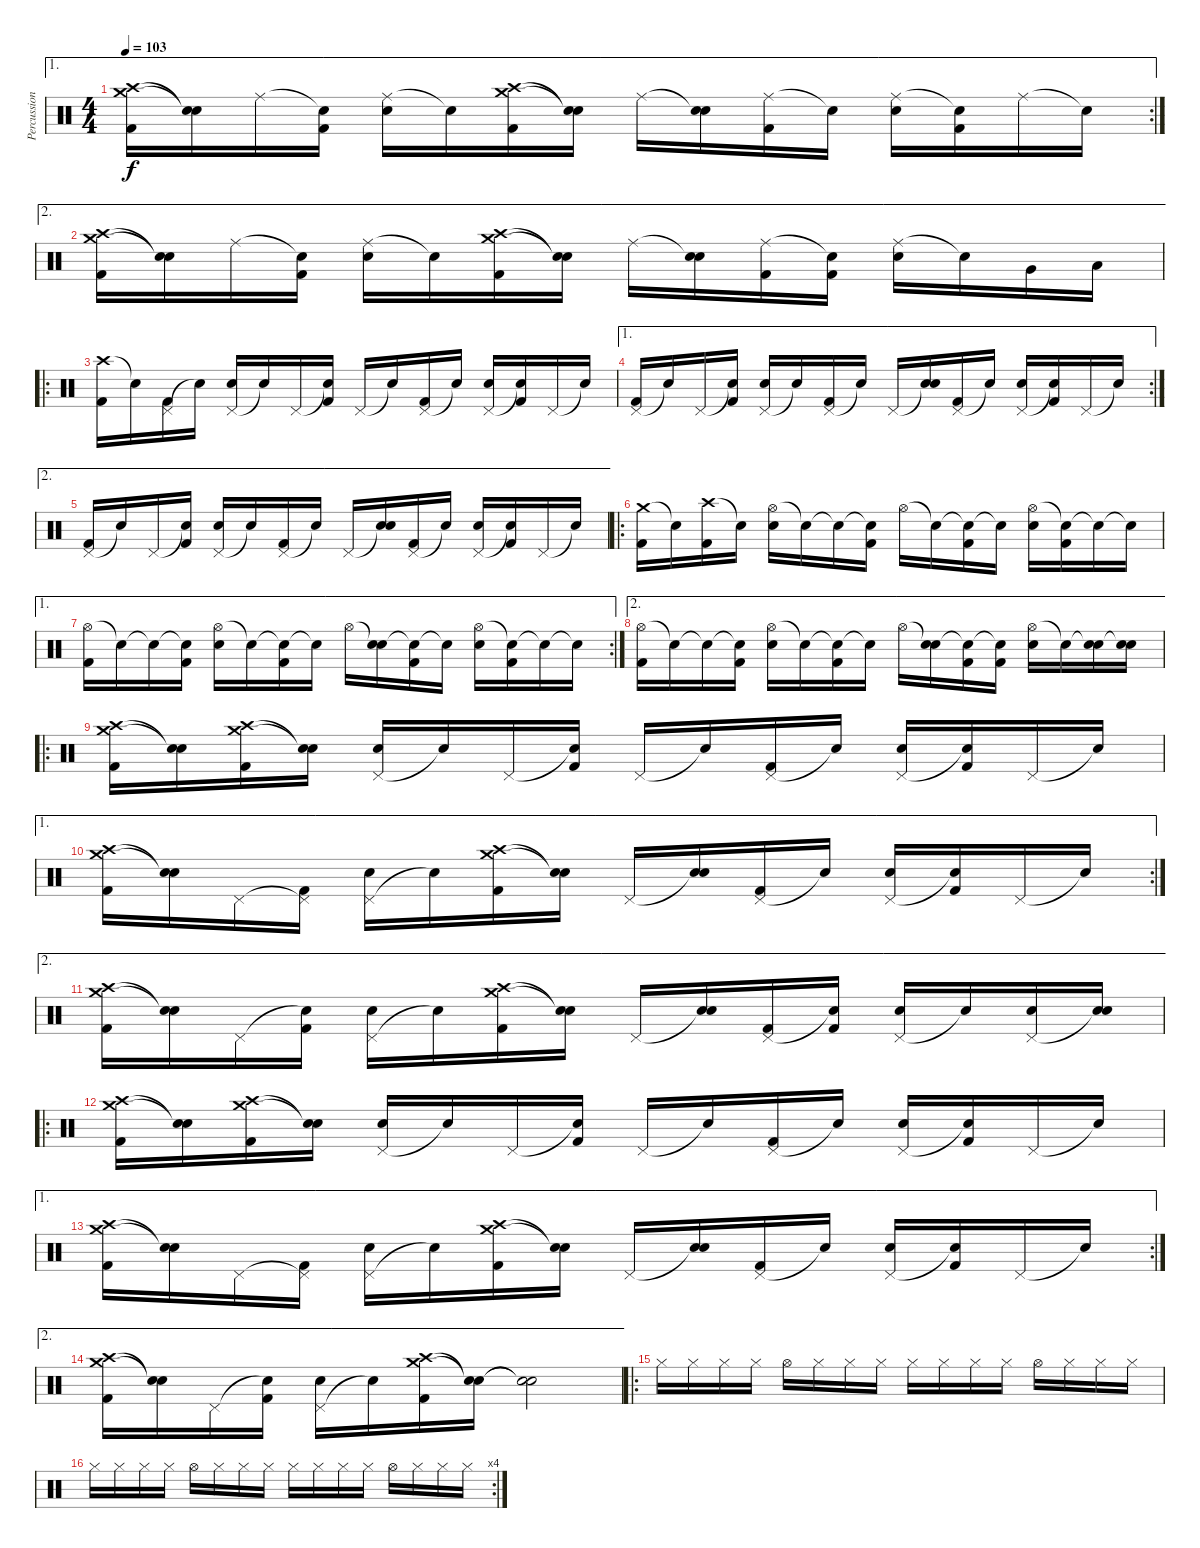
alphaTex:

\track ("Percussion" "Percussion") {instrument percussion}
\staff {score}
\articulation defaults
\ae 1
\rc 2
\ts (4 4)
\tempo 103
\clef neutral
\ks c
("Crash medium (hit)" "Crash high (hit)" "Kick (hit) 2").16{dy f} ("Snare (hit)"{t} "Snare (hit)"{t}).16 "Ride (middle)".16 ("Snare (hit)"{t} "Kick (hit) 2").16 ("Ride (middle)" "Snare (hit) 2").16 "Snare (hit)"{t}.16 ("Crash medium (hit)" "Crash high (hit)" "Kick (hit) 2").16 ("Snare (hit)"{t} "Snare (hit)"{t}).16 "Ride (middle)".16 ("Snare (hit)"{t} "Snare (hit) 2").16 ("Ride (middle)" "Kick (hit) 2").16 "Snare (hit)"{t}.16 ("Ride (middle)" "Snare (hit) 2").16 ("Snare (hit)"{t} "Kick (hit) 2").16 "Ride (middle)".16 "Snare (hit)"{t}.16 |
\ae 2
("Crash medium (hit)" "Crash high (hit)" "Kick (hit) 2").16 ("Snare (hit)"{t} "Snare (hit)"{t}).16 "Ride (middle)".16 ("Snare (hit)"{t} "Kick (hit) 2").16 ("Ride (middle)" "Snare (hit) 2").16 "Snare (hit)"{t}.16 ("Crash medium (hit)" "Crash high (hit)" "Kick (hit) 2").16 ("Snare (hit)"{t} "Snare (hit)"{t}).16 "Ride (middle)".16 ("Snare (hit)"{t} "Snare (hit) 2").16 ("Ride (middle)" "Kick (hit) 2").16 ("Snare (hit)"{t} "Kick (hit) 2").16 ("Ride (middle)" "Snare (hit) 2").16 "Snare (hit)"{t}.16 "Very Low Tom (hit)".16 "Low Floor Tom (hit)".16 |
\ro
("Crash high (hit)" "Kick (hit) 2").16 "Snare (hit)"{t}.16 ("Pedal Hi-Hat (hit)" "Kick (hit) 2").16 "Snare (hit)"{t}.16 ("Pedal Hi-Hat (hit)" "Snare (hit) 2").16 "Snare (hit)"{t}.16 "Pedal Hi-Hat (hit)".16 ("Snare (hit)"{t} "Kick (hit) 2").16 "Pedal Hi-Hat (hit)".16 "Snare (hit)"{t}.16 ("Pedal Hi-Hat (hit)" "Kick (hit) 2").16 "Snare (hit)"{t}.16 ("Pedal Hi-Hat (hit)" "Snare (hit) 2").16 ("Snare (hit)"{t} "Kick (hit) 2").16 "Pedal Hi-Hat (hit)".16 "Snare (hit)"{t}.16 |
\ae 1
\rc 2
("Pedal Hi-Hat (hit)" "Kick (hit) 2").16 "Snare (hit)"{t}.16 "Pedal Hi-Hat (hit)".16 ("Snare (hit)"{t} "Kick (hit) 2").16 ("Pedal Hi-Hat (hit)" "Snare (hit) 2").16 "Snare (hit)"{t}.16 ("Pedal Hi-Hat (hit)" "Kick (hit) 2").16 "Snare (hit)"{t}.16 "Pedal Hi-Hat (hit)".16 ("Snare (hit)"{t} "Snare (hit) 2").16 ("Pedal Hi-Hat (hit)" "Kick (hit) 2").16 "Snare (hit)"{t}.16 ("Pedal Hi-Hat (hit)" "Snare (hit) 2").16 ("Snare (hit)"{t} "Kick (hit) 2").16 "Pedal Hi-Hat (hit)".16 "Snare (hit)"{t}.16 |
\ae 2
("Pedal Hi-Hat (hit)" "Kick (hit) 2").16 "Snare (hit)"{t}.16 "Pedal Hi-Hat (hit)".16 ("Snare (hit)"{t} "Kick (hit) 2").16 ("Pedal Hi-Hat (hit)" "Snare (hit) 2").16 "Snare (hit)"{t}.16 ("Pedal Hi-Hat (hit)" "Kick (hit) 2").16 "Snare (hit)"{t}.16 "Pedal Hi-Hat (hit)".16 ("Snare (hit)"{t} "Snare (hit) 2").16 ("Pedal Hi-Hat (hit)" "Kick (hit) 2").16 "Snare (hit)"{t}.16 ("Pedal Hi-Hat (hit)" "Snare (hit) 2").16 ("Snare (hit)"{t} "Kick (hit) 2").16 "Pedal Hi-Hat (hit)".16 "Snare (hit)"{t}.16 |
\ro
("Crash medium (hit)" "Kick (hit) 2").16 "Snare (hit)"{t}.16 ("Crash high (hit)" "Kick (hit) 2").16 "Snare (hit)"{t}.16 ("Hi-Hat (open)" "Snare (hit) 2").16 "Snare (hit)"{t}.16 "Snare (hit)"{t}.16 ("Snare (hit)"{t} "Kick (hit) 2").16 "Hi-Hat (open)".16 "Snare (hit)"{t}.16 ("Snare (hit)"{t} "Kick (hit) 2").16 "Snare (hit)"{t}.16 ("Hi-Hat (open)" "Snare (hit) 2").16 ("Snare (hit)"{t} "Kick (hit) 2").16 "Snare (hit)"{t}.16 "Snare (hit)"{t}.16 |
\ae 1
\rc 2
("Hi-Hat (open)" "Kick (hit) 2").16 "Snare (hit)"{t}.16 "Snare (hit)"{t}.16 ("Snare (hit)"{t} "Kick (hit) 2").16 ("Hi-Hat (open)" "Snare (hit) 2").16 "Snare (hit)"{t}.16 ("Snare (hit)"{t} "Kick (hit) 2").16 "Snare (hit)"{t}.16 "Hi-Hat (open)".16 ("Snare (hit)"{t} "Snare (hit) 2").16 ("Snare (hit)"{t} "Kick (hit) 2").16 "Snare (hit)"{t}.16 ("Hi-Hat (open)" "Snare (hit) 2").16 ("Snare (hit)"{t} "Kick (hit) 2").16 "Snare (hit)"{t}.16 "Snare (hit)"{t}.16 |
\ae 2
("Hi-Hat (open)" "Kick (hit) 2").16 "Snare (hit)"{t}.16 "Snare (hit)"{t}.16 ("Snare (hit)"{t} "Kick (hit) 2").16 ("Hi-Hat (open)" "Snare (hit) 2").16 "Snare (hit)"{t}.16 ("Snare (hit)"{t} "Kick (hit) 2").16 "Snare (hit)"{t}.16 "Hi-Hat (open)".16 ("Snare (hit)"{t} "Snare (hit) 2").16 ("Snare (hit)"{t} "Kick (hit) 2").16 ("Snare (hit)"{t} "Kick (hit) 2").16 ("Hi-Hat (open)" "Snare (hit) 2").16 "Snare (hit)"{t}.16 ("Snare (hit)"{t} "Snare (hit) 2").16 ("Snare (hit)"{t} "Snare (hit) 2").16 |
\ro
("Crash medium (hit)" "Crash high (hit)" "Kick (hit) 2").16 ("Snare (hit)"{t} "Snare (hit)"{t}).16 ("Crash medium (hit)" "Crash high (hit)" "Kick (hit) 2").16 ("Snare (hit)"{t} "Snare (hit)"{t}).16 ("Pedal Hi-Hat (hit)" "Snare (hit) 2").16 "Snare (hit)"{t}.16 "Pedal Hi-Hat (hit)".16 ("Snare (hit)"{t} "Kick (hit) 2").16 "Pedal Hi-Hat (hit)".16 "Snare (hit)"{t}.16 ("Pedal Hi-Hat (hit)" "Kick (hit) 2").16 "Snare (hit)"{t}.16 ("Pedal Hi-Hat (hit)" "Snare (hit) 2").16 ("Snare (hit)"{t} "Kick (hit) 2").16 "Pedal Hi-Hat (hit)".16 "Snare (hit)"{t}.16 |
\ae 1
\rc 2
("Crash medium (hit)" "Crash high (hit)" "Kick (hit) 2").16 ("Snare (hit)"{t} "Snare (hit)"{t}).16 "Pedal Hi-Hat (hit)".16 ("Pedal Hi-Hat (hit)"{t} "Kick (hit) 2").16 ("Pedal Hi-Hat (hit)" "Snare (hit) 2").16 "Snare (hit)"{t}.16 ("Crash medium (hit)" "Crash high (hit)" "Kick (hit) 2").16 ("Snare (hit)"{t} "Snare (hit)"{t}).16 "Pedal Hi-Hat (hit)".16 ("Snare (hit)"{t} "Snare (hit) 2").16 ("Pedal Hi-Hat (hit)" "Kick (hit) 2").16 "Snare (hit)"{t}.16 ("Pedal Hi-Hat (hit)" "Snare (hit) 2").16 ("Snare (hit)"{t} "Kick (hit) 2").16 "Pedal Hi-Hat (hit)".16 "Snare (hit)"{t}.16 |
\ae 2
("Crash medium (hit)" "Crash high (hit)" "Kick (hit) 2").16 ("Snare (hit)"{t} "Snare (hit)"{t}).16 "Pedal Hi-Hat (hit)".16 ("Snare (hit)"{t} "Kick (hit) 2").16 ("Pedal Hi-Hat (hit)" "Snare (hit) 2").16 "Snare (hit)"{t}.16 ("Crash medium (hit)" "Crash high (hit)" "Kick (hit) 2").16 ("Snare (hit)"{t} "Snare (hit)"{t}).16 "Pedal Hi-Hat (hit)".16 ("Snare (hit)"{t} "Snare (hit) 2").16 ("Pedal Hi-Hat (hit)" "Kick (hit) 2").16 ("Snare (hit)"{t} "Kick (hit) 2").16 ("Pedal Hi-Hat (hit)" "Snare (hit) 2").16 "Snare (hit)"{t}.16 ("Pedal Hi-Hat (hit)" "Snare (hit) 2").16 ("Snare (hit)"{t} "Snare (hit) 2").16 |
\ro
("Crash medium (hit)" "Crash high (hit)" "Kick (hit) 2").16 ("Snare (hit)"{t} "Snare (hit)"{t}).16 ("Crash medium (hit)" "Crash high (hit)" "Kick (hit) 2").16 ("Snare (hit)"{t} "Snare (hit)"{t}).16 ("Pedal Hi-Hat (hit)" "Snare (hit) 2").16 "Snare (hit)"{t}.16 "Pedal Hi-Hat (hit)".16 ("Snare (hit)"{t} "Kick (hit) 2").16 "Pedal Hi-Hat (hit)".16 "Snare (hit)"{t}.16 ("Pedal Hi-Hat (hit)" "Kick (hit) 2").16 "Snare (hit)"{t}.16 ("Pedal Hi-Hat (hit)" "Snare (hit) 2").16 ("Snare (hit)"{t} "Kick (hit) 2").16 "Pedal Hi-Hat (hit)".16 "Snare (hit)"{t}.16 |
\ae 1
\rc 2
("Crash medium (hit)" "Crash high (hit)" "Kick (hit) 2").16 ("Snare (hit)"{t} "Snare (hit)"{t}).16 "Pedal Hi-Hat (hit)".16 ("Pedal Hi-Hat (hit)"{t} "Kick (hit) 2").16 ("Pedal Hi-Hat (hit)" "Snare (hit) 2").16 "Snare (hit)"{t}.16 ("Crash medium (hit)" "Crash high (hit)" "Kick (hit) 2").16 ("Snare (hit)"{t} "Snare (hit)"{t}).16 "Pedal Hi-Hat (hit)".16 ("Snare (hit)"{t} "Snare (hit) 2").16 ("Pedal Hi-Hat (hit)" "Kick (hit) 2").16 "Snare (hit)"{t}.16 ("Pedal Hi-Hat (hit)" "Snare (hit) 2").16 ("Snare (hit)"{t} "Kick (hit) 2").16 "Pedal Hi-Hat (hit)".16 "Snare (hit)"{t}.16 |
\ae 2
("Crash medium (hit)" "Crash high (hit)" "Kick (hit) 2").16 ("Snare (hit)"{t} "Snare (hit)"{t}).16 "Pedal Hi-Hat (hit)".16 ("Snare (hit)"{t} "Kick (hit) 2").16 ("Pedal Hi-Hat (hit)" "Snare (hit) 2").16 "Snare (hit)"{t}.16 ("Crash medium (hit)" "Crash high (hit)" "Kick (hit) 2").16 ("Snare (hit)"{t} "Snare (hit)"{t}).16 ("Snare (hit)"{t} "Snare (hit)"{t}).2 |
\ro "Hi-Hat (closed)".16 "Hi-Hat (closed)".16 "Hi-Hat (closed)".16 "Hi-Hat (closed)".16 "Hi-Hat (open)".16 "Hi-Hat (closed)".16 "Hi-Hat (closed)".16 "Hi-Hat (closed)".16 "Hi-Hat (closed)".16 "Hi-Hat (closed)".16 "Hi-Hat (closed)".16 "Hi-Hat (closed)".16 "Hi-Hat (open)".16 "Hi-Hat (closed)".16 "Hi-Hat (closed)".16 "Hi-Hat (closed)".16
|
\rc 4 "Hi-Hat (closed)".16 "Hi-Hat (closed)".16 "Hi-Hat (closed)".16 "Hi-Hat (closed)".16 "Hi-Hat (open)".16 "Hi-Hat (closed)".16 "Hi-Hat (closed)".16 "Hi-Hat (closed)".16 "Hi-Hat (closed)".16 "Hi-Hat (closed)".16 "Hi-Hat (closed)".16 "Hi-Hat (closed)".16 "Hi-Hat (open)".16 "Hi-Hat (closed)".16 "Hi-Hat (closed)".16 "Hi-Hat (closed)".16
